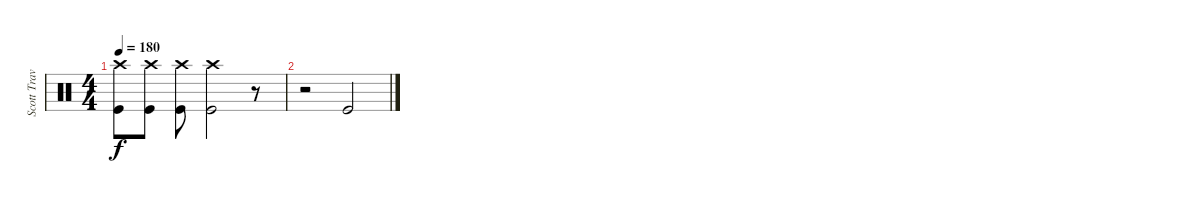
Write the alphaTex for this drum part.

\track ("Scott Travis" "Scott Trav") {instrument percussion}
\staff {score}
\articulation defaults
\ts (4 4)
\section ("" "")
\tempo 180
\clef neutral
\ks c
("Crash high (hit)" "Kick (hit)").8{dy f} ("Crash high (hit)" "Kick (hit)").8 ("Crash high (hit)" "Kick (hit)").8 ("Crash high (hit)" "Kick (hit)").2 r.8 |
r.2 "Kick (hit)".2
